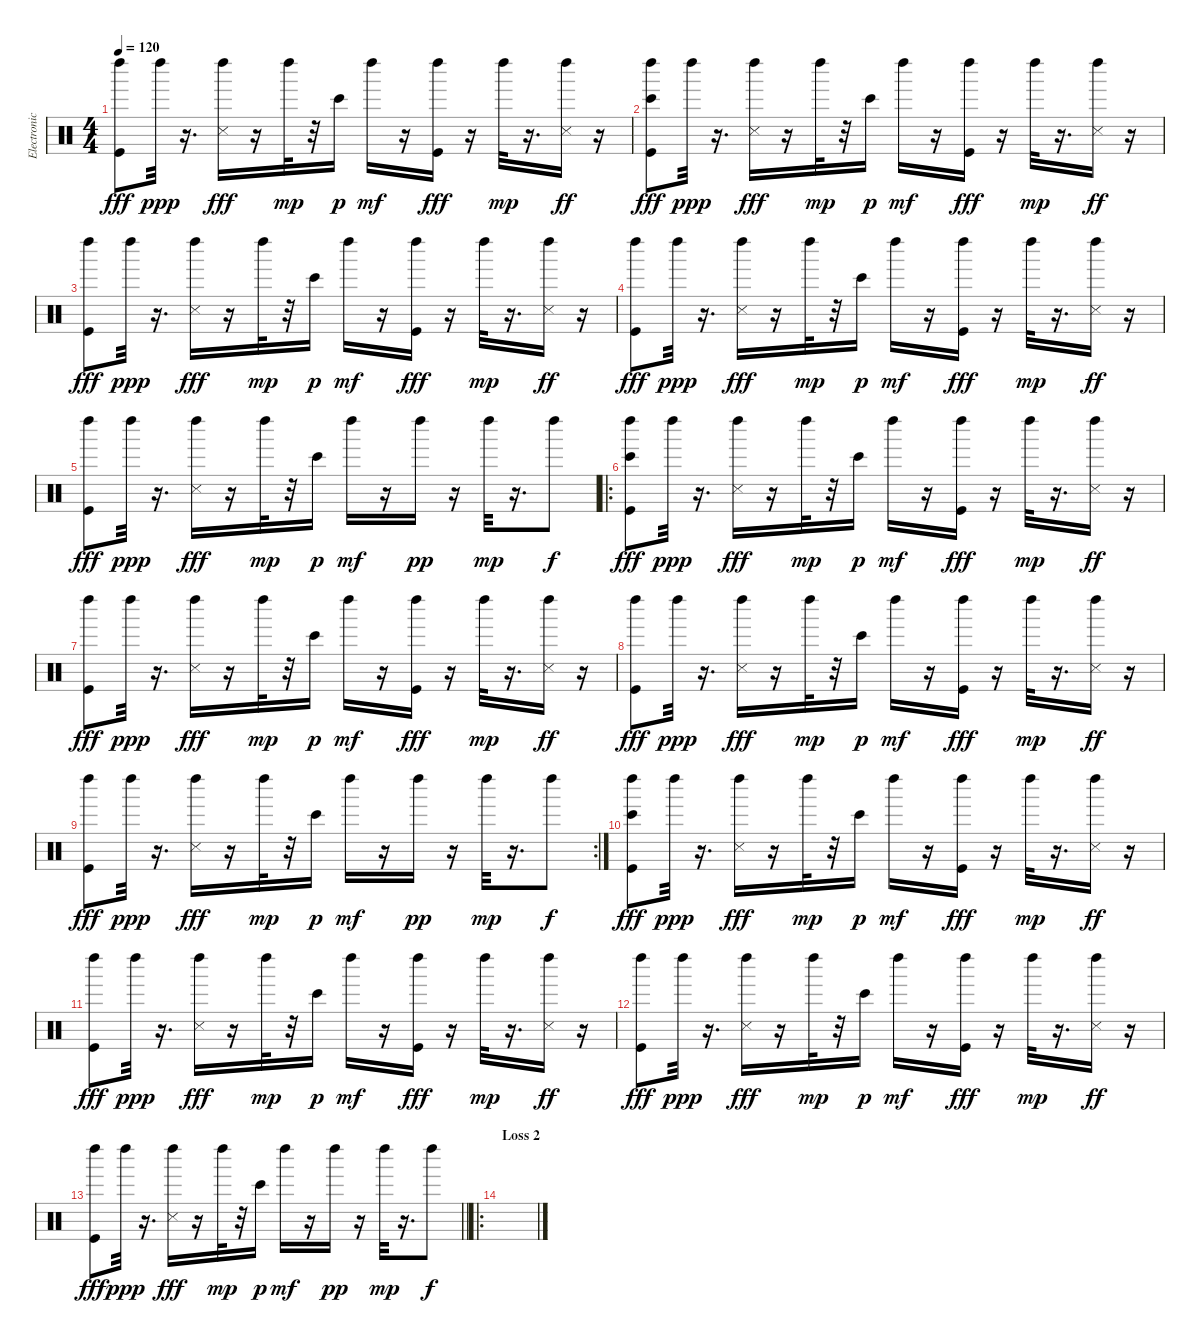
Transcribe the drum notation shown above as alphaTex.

\track ("Electronic Drums" "Electronic") {instrument percussion}
\staff {score}
\articulation defaults
\ts (4 4)
\tempo 120
\clef neutral
\ks c
("Left Maraca (hit)" "Kick (hit)").8{dy fff} "Left Maraca (hit)".32{dy ppp} r.16{d} ("Left Maraca (hit)" "Snare (side stick) 3").16{dy fff} r.16 "Left Maraca (hit)".32{dy mp} r.32 "Bongo High (hit)".16{dy p} "Left Maraca (hit)".16{dy mf} r.16 ("Left Maraca (hit)" "Kick (hit)").16{dy fff} r.16 "Left Maraca (hit)".32{dy mp} r.16{d} ("Left Maraca (hit)" "Snare (side stick) 3").16{dy ff} r.16 |
("Left Maraca (hit)" "Bongo High (hit)" "Kick (hit)").8{dy fff} "Left Maraca (hit)".32{dy ppp} r.16{d} ("Left Maraca (hit)" "Snare (side stick) 3").16{dy fff} r.16 "Left Maraca (hit)".32{dy mp} r.32 "Bongo High (hit)".16{dy p} "Left Maraca (hit)".16{dy mf} r.16 ("Left Maraca (hit)" "Kick (hit)").16{dy fff} r.16 "Left Maraca (hit)".32{dy mp} r.16{d} ("Left Maraca (hit)" "Snare (side stick) 3").16{dy ff} r.16 |
("Left Maraca (hit)" "Kick (hit)").8{dy fff} "Left Maraca (hit)".32{dy ppp} r.16{d} ("Left Maraca (hit)" "Snare (side stick) 3").16{dy fff} r.16 "Left Maraca (hit)".32{dy mp} r.32 "Bongo High (hit)".16{dy p} "Left Maraca (hit)".16{dy mf} r.16 ("Left Maraca (hit)" "Kick (hit)").16{dy fff} r.16 "Left Maraca (hit)".32{dy mp} r.16{d} ("Left Maraca (hit)" "Snare (side stick) 3").16{dy ff} r.16 |
("Left Maraca (hit)" "Kick (hit)").8{dy fff} "Left Maraca (hit)".32{dy ppp} r.16{d} ("Left Maraca (hit)" "Snare (side stick) 3").16{dy fff} r.16 "Left Maraca (hit)".32{dy mp} r.32 "Bongo High (hit)".16{dy p} "Left Maraca (hit)".16{dy mf} r.16 ("Left Maraca (hit)" "Kick (hit)").16{dy fff} r.16 "Left Maraca (hit)".32{dy mp} r.16{d} ("Left Maraca (hit)" "Snare (side stick) 3").16{dy ff} r.16 |
("Left Maraca (hit)" "Kick (hit)").8{dy fff} "Left Maraca (hit)".32{dy ppp} r.16{d} ("Left Maraca (hit)" "Snare (side stick) 3").16{dy fff} r.16 "Left Maraca (hit)".32{dy mp} r.32 "Bongo High (hit)".16{dy p} "Left Maraca (hit)".16{dy mf} r.16 "Left Maraca (hit)".16{dy pp} r.16 "Left Maraca (hit)".32{dy mp} r.16{d} "Left Maraca (hit)".8{dy f} |
\ro
("Left Maraca (hit)" "Bongo High (hit)" "Kick (hit)").8{dy fff} "Left Maraca (hit)".32{dy ppp} r.16{d} ("Left Maraca (hit)" "Snare (side stick) 3").16{dy fff} r.16 "Left Maraca (hit)".32{dy mp} r.32 "Bongo High (hit)".16{dy p} "Left Maraca (hit)".16{dy mf} r.16 ("Left Maraca (hit)" "Kick (hit)").16{dy fff} r.16 "Left Maraca (hit)".32{dy mp} r.16{d} ("Left Maraca (hit)" "Snare (side stick) 3").16{dy ff} r.16 |
("Left Maraca (hit)" "Kick (hit)").8{dy fff} "Left Maraca (hit)".32{dy ppp} r.16{d} ("Left Maraca (hit)" "Snare (side stick) 3").16{dy fff} r.16 "Left Maraca (hit)".32{dy mp} r.32 "Bongo High (hit)".16{dy p} "Left Maraca (hit)".16{dy mf} r.16 ("Left Maraca (hit)" "Kick (hit)").16{dy fff} r.16 "Left Maraca (hit)".32{dy mp} r.16{d} ("Left Maraca (hit)" "Snare (side stick) 3").16{dy ff} r.16 |
("Left Maraca (hit)" "Kick (hit)").8{dy fff} "Left Maraca (hit)".32{dy ppp} r.16{d} ("Left Maraca (hit)" "Snare (side stick) 3").16{dy fff} r.16 "Left Maraca (hit)".32{dy mp} r.32 "Bongo High (hit)".16{dy p} "Left Maraca (hit)".16{dy mf} r.16 ("Left Maraca (hit)" "Kick (hit)").16{dy fff} r.16 "Left Maraca (hit)".32{dy mp} r.16{d} ("Left Maraca (hit)" "Snare (side stick) 3").16{dy ff} r.16 |
\rc 2
("Left Maraca (hit)" "Kick (hit)").8{dy fff} "Left Maraca (hit)".32{dy ppp} r.16{d} ("Left Maraca (hit)" "Snare (side stick) 3").16{dy fff} r.16 "Left Maraca (hit)".32{dy mp} r.32 "Bongo High (hit)".16{dy p} "Left Maraca (hit)".16{dy mf} r.16 "Left Maraca (hit)".16{dy pp} r.16 "Left Maraca (hit)".32{dy mp} r.16{d} "Left Maraca (hit)".8{dy f} |
("Left Maraca (hit)" "Bongo High (hit)" "Kick (hit)").8{dy fff} "Left Maraca (hit)".32{dy ppp} r.16{d} ("Left Maraca (hit)" "Snare (side stick) 3").16{dy fff} r.16 "Left Maraca (hit)".32{dy mp} r.32 "Bongo High (hit)".16{dy p} "Left Maraca (hit)".16{dy mf} r.16 ("Left Maraca (hit)" "Kick (hit)").16{dy fff} r.16 "Left Maraca (hit)".32{dy mp} r.16{d} ("Left Maraca (hit)" "Snare (side stick) 3").16{dy ff} r.16 |
("Left Maraca (hit)" "Kick (hit)").8{dy fff} "Left Maraca (hit)".32{dy ppp} r.16{d} ("Left Maraca (hit)" "Snare (side stick) 3").16{dy fff} r.16 "Left Maraca (hit)".32{dy mp} r.32 "Bongo High (hit)".16{dy p} "Left Maraca (hit)".16{dy mf} r.16 ("Left Maraca (hit)" "Kick (hit)").16{dy fff} r.16 "Left Maraca (hit)".32{dy mp} r.16{d} ("Left Maraca (hit)" "Snare (side stick) 3").16{dy ff} r.16 |
("Left Maraca (hit)" "Kick (hit)").8{dy fff} "Left Maraca (hit)".32{dy ppp} r.16{d} ("Left Maraca (hit)" "Snare (side stick) 3").16{dy fff} r.16 "Left Maraca (hit)".32{dy mp} r.32 "Bongo High (hit)".16{dy p} "Left Maraca (hit)".16{dy mf} r.16 ("Left Maraca (hit)" "Kick (hit)").16{dy fff} r.16 "Left Maraca (hit)".32{dy mp} r.16{d} ("Left Maraca (hit)" "Snare (side stick) 3").16{dy ff} r.16 |
\barLineRight lightlight
("Left Maraca (hit)" "Kick (hit)").8{dy fff} "Left Maraca (hit)".32{dy ppp} r.16{d} ("Left Maraca (hit)" "Snare (side stick) 3").16{dy fff} r.16 "Left Maraca (hit)".32{dy mp} r.32 "Bongo High (hit)".16{dy p} "Left Maraca (hit)".16{dy mf} r.16 "Left Maraca (hit)".16{dy pp} r.16 "Left Maraca (hit)".32{dy mp} r.16{d} "Left Maraca (hit)".8{dy f} |
\ro
\section ("" "Loss 2")
